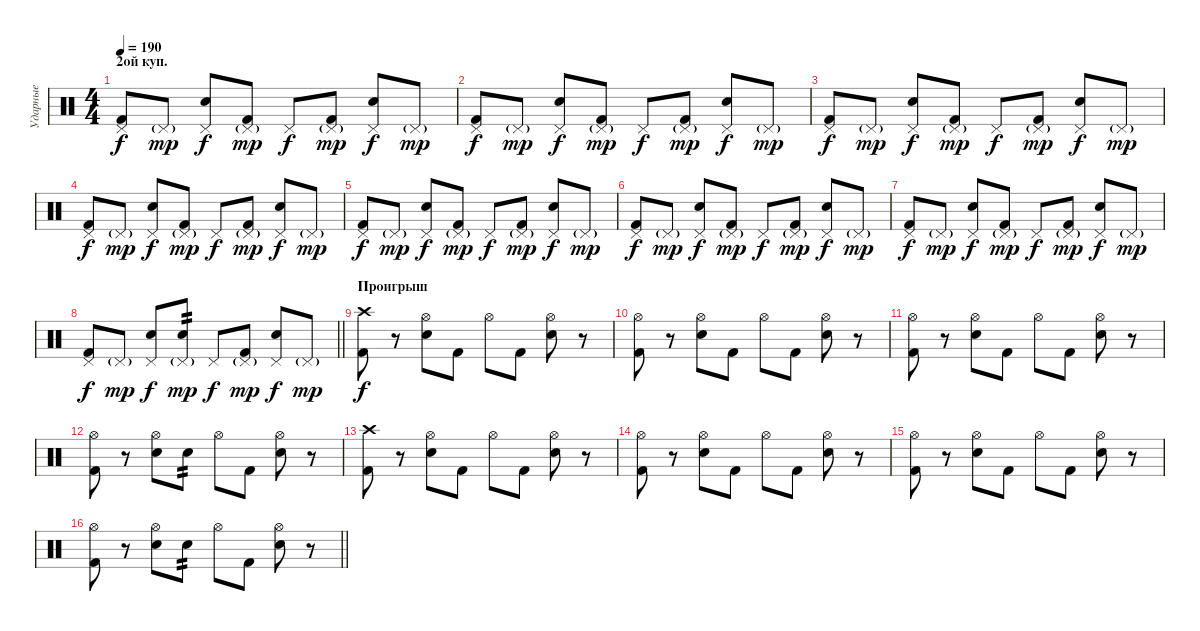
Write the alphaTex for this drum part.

\track ("Ударные" "Ударные") {instrument percussion}
\staff {score}
\articulation defaults
\ts (4 4)
\section ("" "2ой куп.")
\tempo 190
\clef neutral
\ks c
("Pedal Hi-Hat (hit)" "Kick (hit) 2").8{dy f} "Pedal Hi-Hat (hit)"{g}.8{dy mp} ("Pedal Hi-Hat (hit)" "Electric Snare (hit)").8{dy f} ("Pedal Hi-Hat (hit)"{g} "Kick (hit) 2").8{dy mp} "Pedal Hi-Hat (hit)".8{dy f} ("Pedal Hi-Hat (hit)"{g} "Kick (hit) 2").8{dy mp} ("Pedal Hi-Hat (hit)" "Electric Snare (hit)").8{dy f} "Pedal Hi-Hat (hit)"{g}.8{dy mp} |
("Pedal Hi-Hat (hit)" "Kick (hit) 2").8{dy f} "Pedal Hi-Hat (hit)"{g}.8{dy mp} ("Pedal Hi-Hat (hit)" "Electric Snare (hit)").8{dy f} ("Pedal Hi-Hat (hit)"{g} "Kick (hit) 2").8{dy mp} "Pedal Hi-Hat (hit)".8{dy f} ("Pedal Hi-Hat (hit)"{g} "Kick (hit) 2").8{dy mp} ("Pedal Hi-Hat (hit)" "Electric Snare (hit)").8{dy f} "Pedal Hi-Hat (hit)"{g}.8{dy mp} |
("Pedal Hi-Hat (hit)" "Kick (hit) 2").8{dy f} "Pedal Hi-Hat (hit)"{g}.8{dy mp} ("Pedal Hi-Hat (hit)" "Electric Snare (hit)").8{dy f} ("Pedal Hi-Hat (hit)"{g} "Kick (hit) 2").8{dy mp} "Pedal Hi-Hat (hit)".8{dy f} ("Pedal Hi-Hat (hit)"{g} "Kick (hit) 2").8{dy mp} ("Pedal Hi-Hat (hit)" "Electric Snare (hit)").8{dy f} "Pedal Hi-Hat (hit)"{g}.8{dy mp} |
("Pedal Hi-Hat (hit)" "Kick (hit) 2").8{dy f} "Pedal Hi-Hat (hit)"{g}.8{dy mp} ("Pedal Hi-Hat (hit)" "Electric Snare (hit)").8{dy f} ("Pedal Hi-Hat (hit)"{g} "Kick (hit) 2").8{dy mp} "Pedal Hi-Hat (hit)".8{dy f} ("Pedal Hi-Hat (hit)"{g} "Kick (hit) 2").8{dy mp} ("Pedal Hi-Hat (hit)" "Electric Snare (hit)").8{dy f} "Pedal Hi-Hat (hit)"{g}.8{dy mp} |
("Pedal Hi-Hat (hit)" "Kick (hit) 2").8{dy f} "Pedal Hi-Hat (hit)"{g}.8{dy mp} ("Pedal Hi-Hat (hit)" "Electric Snare (hit)").8{dy f} ("Pedal Hi-Hat (hit)"{g} "Kick (hit) 2").8{dy mp} "Pedal Hi-Hat (hit)".8{dy f} ("Pedal Hi-Hat (hit)"{g} "Kick (hit) 2").8{dy mp} ("Pedal Hi-Hat (hit)" "Electric Snare (hit)").8{dy f} "Pedal Hi-Hat (hit)"{g}.8{dy mp} |
("Pedal Hi-Hat (hit)" "Kick (hit) 2").8{dy f} "Pedal Hi-Hat (hit)"{g}.8{dy mp} ("Pedal Hi-Hat (hit)" "Electric Snare (hit)").8{dy f} ("Pedal Hi-Hat (hit)"{g} "Kick (hit) 2").8{dy mp} "Pedal Hi-Hat (hit)".8{dy f} ("Pedal Hi-Hat (hit)"{g} "Kick (hit) 2").8{dy mp} ("Pedal Hi-Hat (hit)" "Electric Snare (hit)").8{dy f} "Pedal Hi-Hat (hit)"{g}.8{dy mp} |
("Pedal Hi-Hat (hit)" "Kick (hit) 2").8{dy f} "Pedal Hi-Hat (hit)"{g}.8{dy mp} ("Pedal Hi-Hat (hit)" "Electric Snare (hit)").8{dy f} ("Pedal Hi-Hat (hit)"{g} "Kick (hit) 2").8{dy mp} "Pedal Hi-Hat (hit)".8{dy f} ("Pedal Hi-Hat (hit)"{g} "Kick (hit) 2").8{dy mp} ("Pedal Hi-Hat (hit)" "Electric Snare (hit)").8{dy f} "Pedal Hi-Hat (hit)"{g}.8{dy mp} |
\barLineRight lightlight
("Pedal Hi-Hat (hit)" "Kick (hit) 2").8{dy f} "Pedal Hi-Hat (hit)"{g}.8{dy mp} ("Pedal Hi-Hat (hit)" "Electric Snare (hit)").8{dy f} ("Pedal Hi-Hat (hit)"{g} "Electric Snare (hit)").8{tp 2 dy mp} "Pedal Hi-Hat (hit)".8{dy f} ("Pedal Hi-Hat (hit)"{g} "Kick (hit) 2").8{dy mp} ("Pedal Hi-Hat (hit)" "Electric Snare (hit)").8{dy f} "Pedal Hi-Hat (hit)"{g}.8{dy mp} |
\section ("" "Проигрыш")
("Crash high (hit)" "Kick (hit) 2").8{dy f} r.8 ("Hi-Hat (open)" "Electric Snare (hit)").8 "Kick (hit) 2".8 "Hi-Hat (open)".8 "Kick (hit) 2".8 ("Hi-Hat (open)" "Electric Snare (hit)").8 r.8 |
("Hi-Hat (open)" "Kick (hit) 2").8 r.8 ("Hi-Hat (open)" "Electric Snare (hit)").8 "Kick (hit) 2".8 "Hi-Hat (open)".8 "Kick (hit) 2".8 ("Hi-Hat (open)" "Electric Snare (hit)").8 r.8 |
("Hi-Hat (open)" "Kick (hit) 2").8 r.8 ("Hi-Hat (open)" "Electric Snare (hit)").8 "Kick (hit) 2".8 "Hi-Hat (open)".8 "Kick (hit) 2".8 ("Hi-Hat (open)" "Electric Snare (hit)").8 r.8 |
("Hi-Hat (open)" "Kick (hit) 2").8 r.8 ("Hi-Hat (open)" "Electric Snare (hit)").8 "Electric Snare (hit)".8{tp 2} "Hi-Hat (open)".8 "Kick (hit) 2".8 ("Hi-Hat (open)" "Electric Snare (hit)").8 r.8 |
("Crash high (hit)" "Kick (hit) 2").8 r.8 ("Hi-Hat (open)" "Electric Snare (hit)").8 "Kick (hit) 2".8 "Hi-Hat (open)".8 "Kick (hit) 2".8 ("Hi-Hat (open)" "Electric Snare (hit)").8 r.8 |
("Hi-Hat (open)" "Kick (hit) 2").8 r.8 ("Hi-Hat (open)" "Electric Snare (hit)").8 "Kick (hit) 2".8 "Hi-Hat (open)".8 "Kick (hit) 2".8 ("Hi-Hat (open)" "Electric Snare (hit)").8 r.8 |
("Hi-Hat (open)" "Kick (hit) 2").8 r.8 ("Hi-Hat (open)" "Electric Snare (hit)").8 "Kick (hit) 2".8 "Hi-Hat (open)".8 "Kick (hit) 2".8 ("Hi-Hat (open)" "Electric Snare (hit)").8 r.8 |
\barLineRight lightlight
("Hi-Hat (open)" "Kick (hit) 2").8 r.8 ("Hi-Hat (open)" "Electric Snare (hit)").8 "Electric Snare (hit)".8{tp 2} "Hi-Hat (open)".8 "Kick (hit) 2".8 ("Hi-Hat (open)" "Electric Snare (hit)").8 r.8
